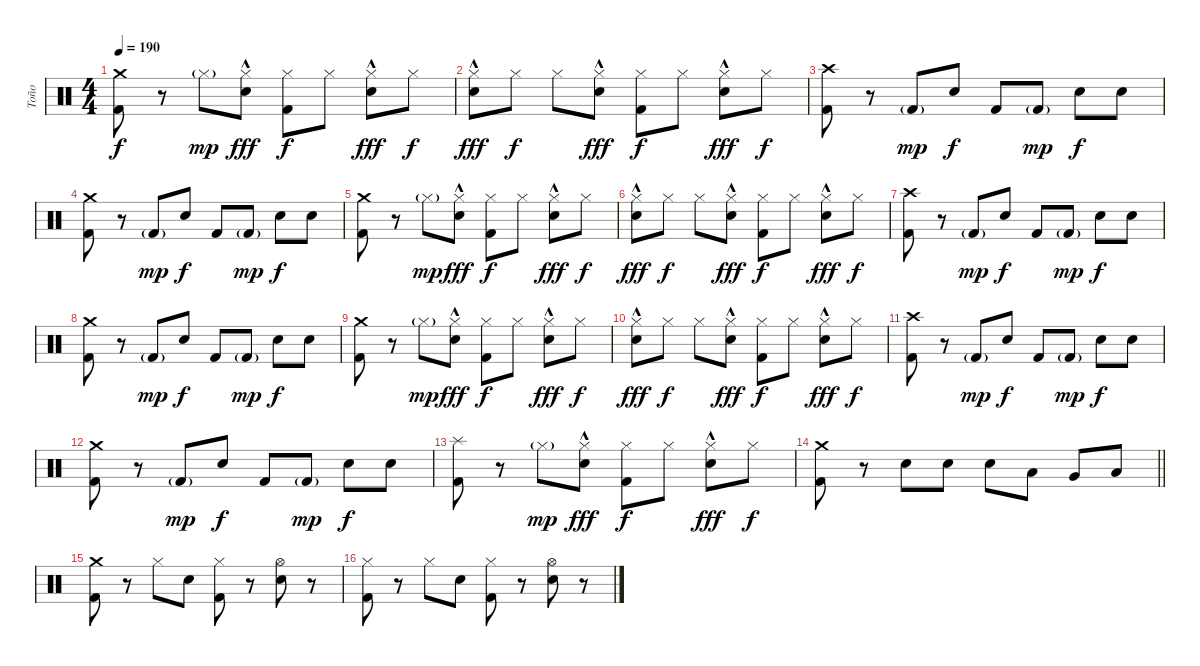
\track ("Toño" "Toño") {instrument percussion}
\staff {score}
\articulation defaults
\ts (4 4)
\tempo 190
\clef neutral
\ks c
("Crash medium (hit)" "Kick (hit) 2").8{dy f} r.8 "Hi-Hat (closed)"{g}.8{dy mp} ("Hi-Hat (closed)"{hac} "Snare (hit) 2").8{dy fff} ("Hi-Hat (closed)" "Kick (hit) 2").8{dy f} "Hi-Hat (closed)".8 ("Hi-Hat (closed)"{hac} "Snare (hit) 2").8{dy fff} "Hi-Hat (closed)".8{dy f} |
("Hi-Hat (closed)"{hac} "Snare (hit) 2").8{dy fff} "Hi-Hat (closed)".8{dy f} "Hi-Hat (closed)".8 ("Hi-Hat (closed)"{hac} "Snare (hit) 2").8{dy fff} ("Hi-Hat (closed)" "Kick (hit) 2").8{dy f} "Hi-Hat (closed)".8 ("Hi-Hat (closed)"{hac} "Snare (hit) 2").8{dy fff} "Hi-Hat (closed)".8{dy f} |
("Crash high (hit)" "Kick (hit) 2").8 r.8 "Kick (hit) 2"{g}.8{dy mp} "Snare (hit) 2".8{dy f} "Kick (hit) 2".8 "Kick (hit) 2"{g}.8{dy mp} "Snare (hit) 2".8{dy f} "Snare (hit) 2".8 |
("Crash medium (hit)" "Kick (hit) 2").8 r.8 "Kick (hit) 2"{g}.8{dy mp} "Snare (hit) 2".8{dy f} "Kick (hit) 2".8 "Kick (hit) 2"{g}.8{dy mp} "Snare (hit) 2".8{dy f} "Snare (hit) 2".8 |
("Crash medium (hit)" "Kick (hit) 2").8 r.8 "Hi-Hat (closed)"{g}.8{dy mp} ("Hi-Hat (closed)"{hac} "Snare (hit) 2").8{dy fff} ("Hi-Hat (closed)" "Kick (hit) 2").8{dy f} "Hi-Hat (closed)".8 ("Hi-Hat (closed)"{hac} "Snare (hit) 2").8{dy fff} "Hi-Hat (closed)".8{dy f} |
("Hi-Hat (closed)"{hac} "Snare (hit) 2").8{dy fff} "Hi-Hat (closed)".8{dy f} "Hi-Hat (closed)".8 ("Hi-Hat (closed)"{hac} "Snare (hit) 2").8{dy fff} ("Hi-Hat (closed)" "Kick (hit) 2").8{dy f} "Hi-Hat (closed)".8 ("Hi-Hat (closed)"{hac} "Snare (hit) 2").8{dy fff} "Hi-Hat (closed)".8{dy f} |
("Crash high (hit)" "Kick (hit) 2").8 r.8 "Kick (hit) 2"{g}.8{dy mp} "Snare (hit) 2".8{dy f} "Kick (hit) 2".8 "Kick (hit) 2"{g}.8{dy mp} "Snare (hit) 2".8{dy f} "Snare (hit) 2".8 |
("Crash medium (hit)" "Kick (hit) 2").8 r.8 "Kick (hit) 2"{g}.8{dy mp} "Snare (hit) 2".8{dy f} "Kick (hit) 2".8 "Kick (hit) 2"{g}.8{dy mp} "Snare (hit) 2".8{dy f} "Snare (hit) 2".8 |
("Crash medium (hit)" "Kick (hit) 2").8 r.8 "Hi-Hat (closed)"{g}.8{dy mp} ("Hi-Hat (closed)"{hac} "Snare (hit) 2").8{dy fff} ("Hi-Hat (closed)" "Kick (hit) 2").8{dy f} "Hi-Hat (closed)".8 ("Hi-Hat (closed)"{hac} "Snare (hit) 2").8{dy fff} "Hi-Hat (closed)".8{dy f} |
("Hi-Hat (closed)"{hac} "Snare (hit) 2").8{dy fff} "Hi-Hat (closed)".8{dy f} "Hi-Hat (closed)".8 ("Hi-Hat (closed)"{hac} "Snare (hit) 2").8{dy fff} ("Hi-Hat (closed)" "Kick (hit) 2").8{dy f} "Hi-Hat (closed)".8 ("Hi-Hat (closed)"{hac} "Snare (hit) 2").8{dy fff} "Hi-Hat (closed)".8{dy f} |
("Crash high (hit)" "Kick (hit) 2").8 r.8 "Kick (hit) 2"{g}.8{dy mp} "Snare (hit) 2".8{dy f} "Kick (hit) 2".8 "Kick (hit) 2"{g}.8{dy mp} "Snare (hit) 2".8{dy f} "Snare (hit) 2".8 |
("Crash medium (hit)" "Kick (hit) 2").8 r.8 "Kick (hit) 2"{g}.8{dy mp} "Snare (hit) 2".8{dy f} "Kick (hit) 2".8 "Kick (hit) 2"{g}.8{dy mp} "Snare (hit) 2".8{dy f} "Snare (hit) 2".8 |
("Splash (hit)" "Kick (hit) 2").8 r.8 "Hi-Hat (closed)"{g}.8{dy mp} ("Hi-Hat (closed)"{hac} "Snare (hit) 2").8{dy fff} ("Hi-Hat (closed)" "Kick (hit) 2").8{dy f} "Hi-Hat (closed)".8 ("Hi-Hat (closed)"{hac} "Snare (hit) 2").8{dy fff} "Hi-Hat (closed)".8{dy f} |
\barLineRight lightlight
("Crash medium (hit)" "Kick (hit) 2").8 r.8 "Snare (hit) 2".8 "Snare (hit) 2".8 "Snare (hit) 2".8 "Low Tom (hit)".8 "Very Low Tom (hit)".8 "Low Floor Tom (hit)".8 |
("Crash medium (hit)" "Kick (hit) 2").8 r.8 "Hi-Hat (closed)".8 "Snare (hit) 2".8 ("Hi-Hat (closed)" "Kick (hit) 2").8 r.8 ("Hi-Hat (open)" "Snare (hit) 2").8 r.8 |
("Hi-Hat (closed)" "Kick (hit) 2").8 r.8 "Hi-Hat (closed)".8 "Snare (hit) 2".8 ("Hi-Hat (closed)" "Kick (hit) 2").8 r.8 ("Hi-Hat (open)" "Snare (hit) 2").8 r.8
